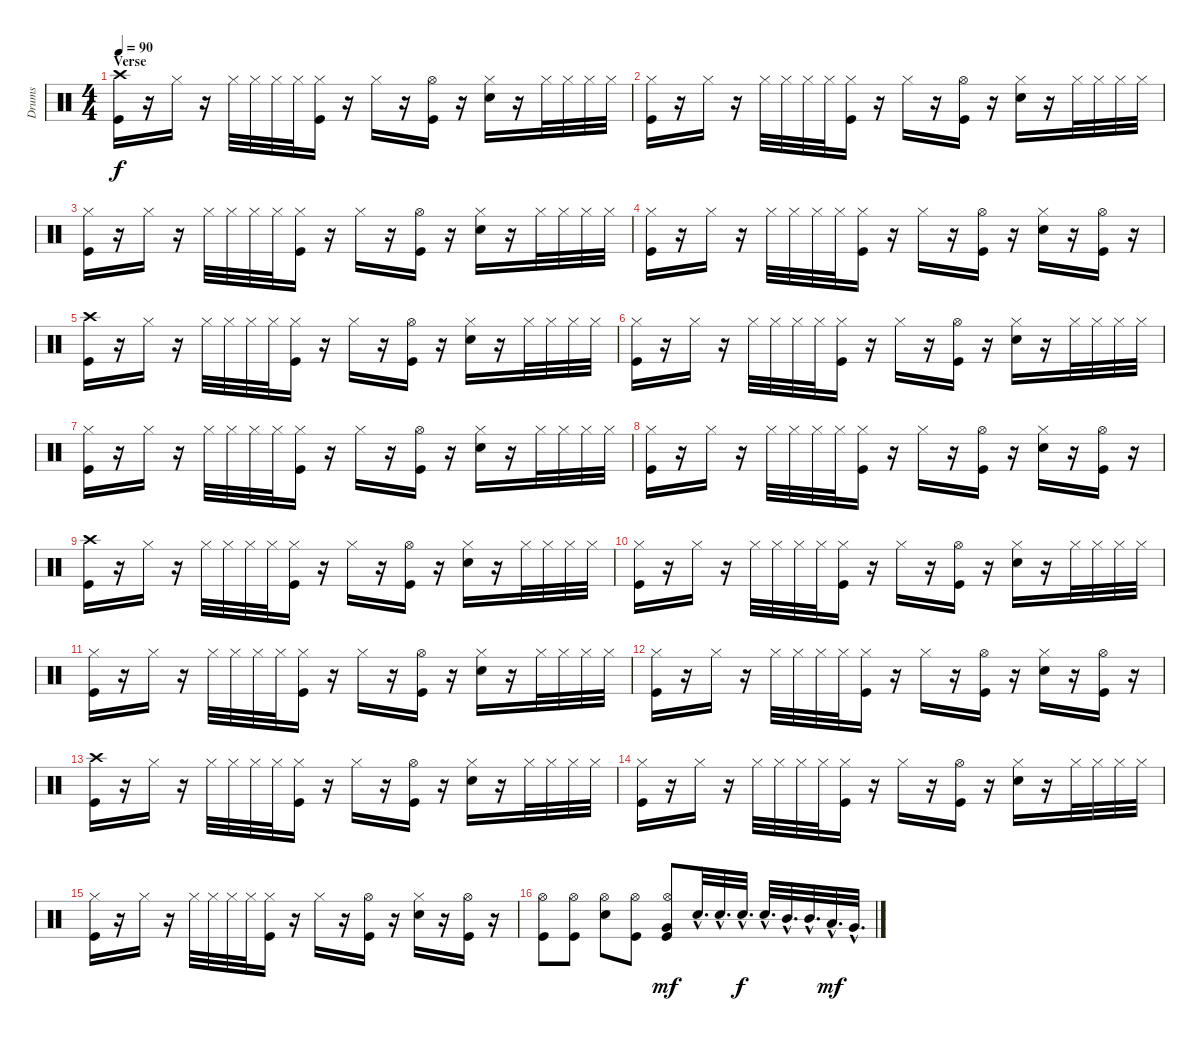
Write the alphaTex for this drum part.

\track ("Drums" "Drums") {instrument percussion}
\staff {score}
\articulation defaults
\ts (4 4)
\section ("" "Verse")
\tempo 90
\clef neutral
\ks c
("Crash high (hit)" "Kick (hit)").16{dy f} r.16 "Hi-Hat (closed)".16 r.16 "Hi-Hat (closed)".32 "Hi-Hat (closed)".32 "Hi-Hat (closed)".32 "Hi-Hat (closed)".32 ("Hi-Hat (closed)" "Kick (hit)").16 r.16 "Hi-Hat (closed)".16 r.16 ("Hi-Hat (open)" "Kick (hit)").16 r.16 ("Hi-Hat (closed)" "Snare (hit) 2").16 r.16 "Hi-Hat (closed)".32 "Hi-Hat (closed)".32 "Hi-Hat (closed)".32 "Hi-Hat (closed)".32 |
("Hi-Hat (closed)" "Kick (hit)").16 r.16 "Hi-Hat (closed)".16 r.16 "Hi-Hat (closed)".32 "Hi-Hat (closed)".32 "Hi-Hat (closed)".32 "Hi-Hat (closed)".32 ("Hi-Hat (closed)" "Kick (hit)").16 r.16 "Hi-Hat (closed)".16 r.16 ("Hi-Hat (open)" "Kick (hit)").16 r.16 ("Hi-Hat (closed)" "Snare (hit) 2").16 r.16 "Hi-Hat (closed)".32 "Hi-Hat (closed)".32 "Hi-Hat (closed)".32 "Hi-Hat (closed)".32 |
("Hi-Hat (closed)" "Kick (hit)").16 r.16 "Hi-Hat (closed)".16 r.16 "Hi-Hat (closed)".32 "Hi-Hat (closed)".32 "Hi-Hat (closed)".32 "Hi-Hat (closed)".32 ("Hi-Hat (closed)" "Kick (hit)").16 r.16 "Hi-Hat (closed)".16 r.16 ("Hi-Hat (open)" "Kick (hit)").16 r.16 ("Hi-Hat (closed)" "Snare (hit) 2").16 r.16 "Hi-Hat (closed)".32 "Hi-Hat (closed)".32 "Hi-Hat (closed)".32 "Hi-Hat (closed)".32 |
("Hi-Hat (closed)" "Kick (hit)").16 r.16 "Hi-Hat (closed)".16 r.16 "Hi-Hat (closed)".32 "Hi-Hat (closed)".32 "Hi-Hat (closed)".32 "Hi-Hat (closed)".32 ("Hi-Hat (closed)" "Kick (hit)").16 r.16 "Hi-Hat (closed)".16 r.16 ("Hi-Hat (open)" "Kick (hit)").16 r.16 ("Hi-Hat (closed)" "Snare (hit) 2").16 r.16 ("Hi-Hat (open)" "Kick (hit)").16 r.16 |
("Crash high (hit)" "Kick (hit)").16 r.16 "Hi-Hat (closed)".16 r.16 "Hi-Hat (closed)".32 "Hi-Hat (closed)".32 "Hi-Hat (closed)".32 "Hi-Hat (closed)".32 ("Hi-Hat (closed)" "Kick (hit)").16 r.16 "Hi-Hat (closed)".16 r.16 ("Hi-Hat (open)" "Kick (hit)").16 r.16 ("Hi-Hat (closed)" "Snare (hit) 2").16 r.16 "Hi-Hat (closed)".32 "Hi-Hat (closed)".32 "Hi-Hat (closed)".32 "Hi-Hat (closed)".32 |
("Hi-Hat (closed)" "Kick (hit)").16 r.16 "Hi-Hat (closed)".16 r.16 "Hi-Hat (closed)".32 "Hi-Hat (closed)".32 "Hi-Hat (closed)".32 "Hi-Hat (closed)".32 ("Hi-Hat (closed)" "Kick (hit)").16 r.16 "Hi-Hat (closed)".16 r.16 ("Hi-Hat (open)" "Kick (hit)").16 r.16 ("Hi-Hat (closed)" "Snare (hit) 2").16 r.16 "Hi-Hat (closed)".32 "Hi-Hat (closed)".32 "Hi-Hat (closed)".32 "Hi-Hat (closed)".32 |
("Hi-Hat (closed)" "Kick (hit)").16 r.16 "Hi-Hat (closed)".16 r.16 "Hi-Hat (closed)".32 "Hi-Hat (closed)".32 "Hi-Hat (closed)".32 "Hi-Hat (closed)".32 ("Hi-Hat (closed)" "Kick (hit)").16 r.16 "Hi-Hat (closed)".16 r.16 ("Hi-Hat (open)" "Kick (hit)").16 r.16 ("Hi-Hat (closed)" "Snare (hit) 2").16 r.16 "Hi-Hat (closed)".32 "Hi-Hat (closed)".32 "Hi-Hat (closed)".32 "Hi-Hat (closed)".32 |
("Hi-Hat (closed)" "Kick (hit)").16 r.16 "Hi-Hat (closed)".16 r.16 "Hi-Hat (closed)".32 "Hi-Hat (closed)".32 "Hi-Hat (closed)".32 "Hi-Hat (closed)".32 ("Hi-Hat (closed)" "Kick (hit)").16 r.16 "Hi-Hat (closed)".16 r.16 ("Hi-Hat (open)" "Kick (hit)").16 r.16 ("Hi-Hat (closed)" "Snare (hit) 2").16 r.16 ("Hi-Hat (open)" "Kick (hit)").16 r.16 |
\section ("" ".")
("Crash high (hit)" "Kick (hit)").16 r.16 "Hi-Hat (closed)".16 r.16 "Hi-Hat (closed)".32 "Hi-Hat (closed)".32 "Hi-Hat (closed)".32 "Hi-Hat (closed)".32 ("Hi-Hat (closed)" "Kick (hit)").16 r.16 "Hi-Hat (closed)".16 r.16 ("Hi-Hat (open)" "Kick (hit)").16 r.16 ("Hi-Hat (closed)" "Snare (hit) 2").16 r.16 "Hi-Hat (closed)".32 "Hi-Hat (closed)".32 "Hi-Hat (closed)".32 "Hi-Hat (closed)".32 |
("Hi-Hat (closed)" "Kick (hit)").16 r.16 "Hi-Hat (closed)".16 r.16 "Hi-Hat (closed)".32 "Hi-Hat (closed)".32 "Hi-Hat (closed)".32 "Hi-Hat (closed)".32 ("Hi-Hat (closed)" "Kick (hit)").16 r.16 "Hi-Hat (closed)".16 r.16 ("Hi-Hat (open)" "Kick (hit)").16 r.16 ("Hi-Hat (closed)" "Snare (hit) 2").16 r.16 "Hi-Hat (closed)".32 "Hi-Hat (closed)".32 "Hi-Hat (closed)".32 "Hi-Hat (closed)".32 |
("Hi-Hat (closed)" "Kick (hit)").16 r.16 "Hi-Hat (closed)".16 r.16 "Hi-Hat (closed)".32 "Hi-Hat (closed)".32 "Hi-Hat (closed)".32 "Hi-Hat (closed)".32 ("Hi-Hat (closed)" "Kick (hit)").16 r.16 "Hi-Hat (closed)".16 r.16 ("Hi-Hat (open)" "Kick (hit)").16 r.16 ("Hi-Hat (closed)" "Snare (hit) 2").16 r.16 "Hi-Hat (closed)".32 "Hi-Hat (closed)".32 "Hi-Hat (closed)".32 "Hi-Hat (closed)".32 |
("Hi-Hat (closed)" "Kick (hit)").16 r.16 "Hi-Hat (closed)".16 r.16 "Hi-Hat (closed)".32 "Hi-Hat (closed)".32 "Hi-Hat (closed)".32 "Hi-Hat (closed)".32 ("Hi-Hat (closed)" "Kick (hit)").16 r.16 "Hi-Hat (closed)".16 r.16 ("Hi-Hat (open)" "Kick (hit)").16 r.16 ("Hi-Hat (closed)" "Snare (hit) 2").16 r.16 ("Hi-Hat (open)" "Kick (hit)").16 r.16 |
("Crash high (hit)" "Kick (hit)").16 r.16 "Hi-Hat (closed)".16 r.16 "Hi-Hat (closed)".32 "Hi-Hat (closed)".32 "Hi-Hat (closed)".32 "Hi-Hat (closed)".32 ("Hi-Hat (closed)" "Kick (hit)").16 r.16 "Hi-Hat (closed)".16 r.16 ("Hi-Hat (open)" "Kick (hit)").16 r.16 ("Hi-Hat (closed)" "Snare (hit) 2").16 r.16 "Hi-Hat (closed)".32 "Hi-Hat (closed)".32 "Hi-Hat (closed)".32 "Hi-Hat (closed)".32 |
("Hi-Hat (closed)" "Kick (hit)").16 r.16 "Hi-Hat (closed)".16 r.16 "Hi-Hat (closed)".32 "Hi-Hat (closed)".32 "Hi-Hat (closed)".32 "Hi-Hat (closed)".32 ("Hi-Hat (closed)" "Kick (hit)").16 r.16 "Hi-Hat (closed)".16 r.16 ("Hi-Hat (open)" "Kick (hit)").16 r.16 ("Hi-Hat (closed)" "Snare (hit) 2").16 r.16 "Hi-Hat (closed)".32 "Hi-Hat (closed)".32 "Hi-Hat (closed)".32 "Hi-Hat (closed)".32 |
("Hi-Hat (closed)" "Kick (hit)").16 r.16 "Hi-Hat (closed)".16 r.16 "Hi-Hat (closed)".32 "Hi-Hat (closed)".32 "Hi-Hat (closed)".32 "Hi-Hat (closed)".32 ("Hi-Hat (closed)" "Kick (hit)").16 r.16 "Hi-Hat (closed)".16 r.16 ("Hi-Hat (open)" "Kick (hit)").16 r.16 ("Hi-Hat (closed)" "Snare (hit) 2").16 r.16 ("Hi-Hat (open)" "Kick (hit)").16 r.16 |
("Hi-Hat (open)" "Kick (hit)").8 ("Hi-Hat (open)" "Kick (hit)").8 ("Hi-Hat (open)" "Snare (hit) 2").8 ("Hi-Hat (open)" "Kick (hit)").8 ("Hi-Hat (open)" "Very Low Tom (hit)" "Kick (hit)").8{dy mf} "Snare (hit) 2"{hac}.32{d} "Snare (hit) 2"{hac}.32{d} "Snare (hit) 2"{hac}.32{d dy f} "Snare (hit) 2"{hac}.32{d} "Mid Tom (hit)"{hac}.32{d} "Mid Tom (hit)"{hac}.32{d} "Low Tom (hit)"{hac}.32{d dy mf} "Very Low Tom (hit)"{hac}.32{d}
